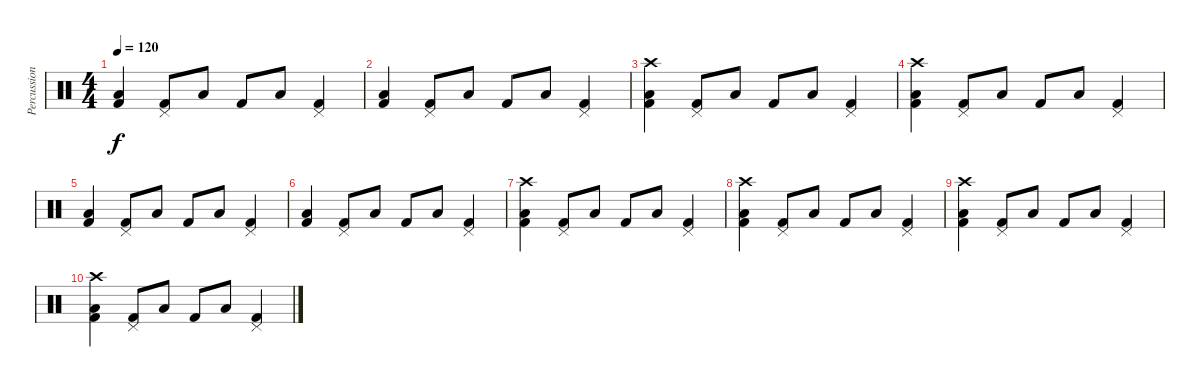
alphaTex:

\track ("Percussions" "Percussion") {instrument percussion}
\staff {score}
\articulation defaults
\ts (4 4)
\tempo 120
\clef neutral
\ks c
("Low Floor Tom (hit)" "Kick (hit) 2").4{dy f} ("Pedal Hi-Hat (hit)" "Kick (hit) 2").8 "Low Floor Tom (hit)".8 "Kick (hit) 2".8 "Low Floor Tom (hit)".8 ("Pedal Hi-Hat (hit)" "Kick (hit) 2").4 |
("Low Floor Tom (hit)" "Kick (hit) 2").4 ("Pedal Hi-Hat (hit)" "Kick (hit) 2").8 "Low Floor Tom (hit)".8 "Kick (hit) 2".8 "Low Floor Tom (hit)".8 ("Pedal Hi-Hat (hit)" "Kick (hit) 2").4 |
("Low Floor Tom (hit)" "Crash high (hit)" "Kick (hit) 2").4 ("Pedal Hi-Hat (hit)" "Kick (hit) 2").8 "Low Floor Tom (hit)".8 "Kick (hit) 2".8 "Low Floor Tom (hit)".8 ("Pedal Hi-Hat (hit)" "Kick (hit) 2").4 |
("Low Floor Tom (hit)" "Crash high (hit)" "Kick (hit) 2").4 ("Pedal Hi-Hat (hit)" "Kick (hit) 2").8 "Low Floor Tom (hit)".8 "Kick (hit) 2".8 "Low Floor Tom (hit)".8 ("Pedal Hi-Hat (hit)" "Kick (hit) 2").4 |
("Low Floor Tom (hit)" "Kick (hit) 2").4 ("Pedal Hi-Hat (hit)" "Kick (hit) 2").8 "Low Floor Tom (hit)".8 "Kick (hit) 2".8 "Low Floor Tom (hit)".8 ("Pedal Hi-Hat (hit)" "Kick (hit) 2").4 |
("Low Floor Tom (hit)" "Kick (hit) 2").4 ("Pedal Hi-Hat (hit)" "Kick (hit) 2").8 "Low Floor Tom (hit)".8 "Kick (hit) 2".8 "Low Floor Tom (hit)".8 ("Pedal Hi-Hat (hit)" "Kick (hit) 2").4 |
("Low Floor Tom (hit)" "Crash high (hit)" "Kick (hit) 2").4 ("Pedal Hi-Hat (hit)" "Kick (hit) 2").8 "Low Floor Tom (hit)".8 "Kick (hit) 2".8 "Low Floor Tom (hit)".8 ("Pedal Hi-Hat (hit)" "Kick (hit) 2").4 |
("Low Floor Tom (hit)" "Crash high (hit)" "Kick (hit) 2").4 ("Pedal Hi-Hat (hit)" "Kick (hit) 2").8 "Low Floor Tom (hit)".8 "Kick (hit) 2".8 "Low Floor Tom (hit)".8 ("Pedal Hi-Hat (hit)" "Kick (hit) 2").4 |
("Low Floor Tom (hit)" "Crash high (hit)" "Kick (hit) 2").4 ("Pedal Hi-Hat (hit)" "Kick (hit) 2").8 "Low Floor Tom (hit)".8 "Kick (hit) 2".8 "Low Floor Tom (hit)".8 ("Pedal Hi-Hat (hit)" "Kick (hit) 2").4 |
("Low Floor Tom (hit)" "Crash high (hit)" "Kick (hit) 2").4 ("Pedal Hi-Hat (hit)" "Kick (hit) 2").8 "Low Floor Tom (hit)".8 "Kick (hit) 2".8 "Low Floor Tom (hit)".8 ("Pedal Hi-Hat (hit)" "Kick (hit) 2").4
